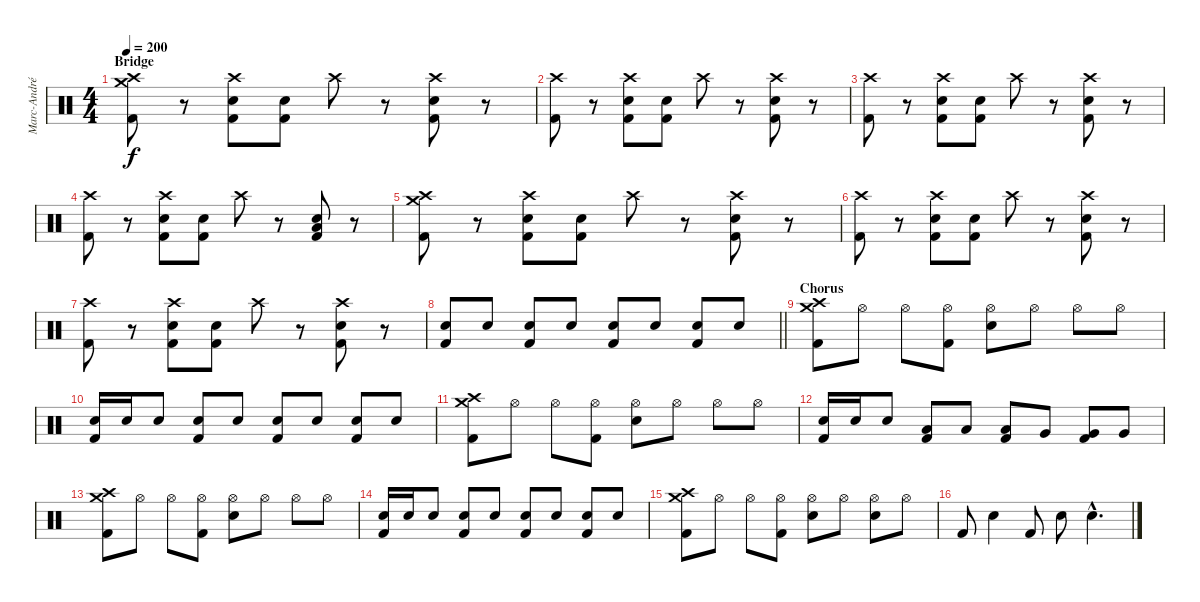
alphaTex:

\track ("Marc-André Barabé" "Marc-André") {instrument percussion}
\staff {score}
\articulation defaults
\ts (4 4)
\section ("" "Bridge")
\tempo 200
\clef neutral
\ks c
("Crash high (hit)" "Crash medium (hit)" "Kick (hit) 2").8{dy f} r.8 ("Crash high (hit)" "Electric Snare (hit)" "Kick (hit) 2"{tr (36 32)}).8 ("Electric Snare (hit)" "Kick (hit) 2").8 "Crash high (hit)".8 r.8 ("Crash high (hit)" "Electric Snare (hit)" "Kick (hit) 2"{tr (4 32)}).8 r.8 |
("Crash high (hit)" "Kick (hit) 2").8 r.8 ("Crash high (hit)" "Electric Snare (hit)" "Kick (hit) 2"{tr (36 32)}).8 ("Electric Snare (hit)" "Kick (hit) 2").8 "Crash high (hit)".8 r.8 ("Crash high (hit)" "Electric Snare (hit)" "Kick (hit) 2"{tr (4 32)}).8 r.8 |
("Crash high (hit)" "Kick (hit) 2").8 r.8 ("Crash high (hit)" "Electric Snare (hit)" "Kick (hit) 2"{tr (36 32)}).8 ("Electric Snare (hit)" "Kick (hit) 2").8 "Crash high (hit)".8 r.8 ("Crash high (hit)" "Electric Snare (hit)" "Kick (hit) 2"{tr (4 32)}).8 r.8 |
("Crash high (hit)" "Kick (hit) 2").8 r.8 ("Crash high (hit)" "Electric Snare (hit)" "Kick (hit) 2"{tr (36 32)}).8 ("Electric Snare (hit)" "Kick (hit) 2").8 "Crash high (hit)".8 r.8 ("Electric Snare (hit)" "Low Floor Tom (hit)" "Kick (hit) 2"{tr (4 32)}).8 r.8 |
("Crash high (hit)" "Crash medium (hit)" "Kick (hit) 2").8 r.8 ("Crash high (hit)" "Electric Snare (hit)" "Kick (hit) 2"{tr (36 32)}).8 ("Electric Snare (hit)" "Kick (hit) 2").8 "Crash high (hit)".8 r.8 ("Crash high (hit)" "Electric Snare (hit)" "Kick (hit) 2"{tr (4 32)}).8 r.8 |
("Crash high (hit)" "Kick (hit) 2").8 r.8 ("Crash high (hit)" "Electric Snare (hit)" "Kick (hit) 2"{tr (36 32)}).8 ("Electric Snare (hit)" "Kick (hit) 2").8 "Crash high (hit)".8 r.8 ("Crash high (hit)" "Electric Snare (hit)" "Kick (hit) 2"{tr (4 32)}).8 r.8 |
("Crash high (hit)" "Kick (hit) 2").8 r.8 ("Crash high (hit)" "Electric Snare (hit)" "Kick (hit) 2"{tr (36 32)}).8 ("Electric Snare (hit)" "Kick (hit) 2").8 "Crash high (hit)".8 r.8 ("Crash high (hit)" "Electric Snare (hit)" "Kick (hit) 2"{tr (4 32)}).8 r.8 |
\barLineRight lightlight
("Electric Snare (hit)" "Kick (hit) 2").8 "Electric Snare (hit)".8 ("Electric Snare (hit)" "Kick (hit) 2").8 "Electric Snare (hit)".8 ("Electric Snare (hit)" "Kick (hit) 2").8 "Electric Snare (hit)".8 ("Electric Snare (hit)" "Kick (hit) 2").8 "Electric Snare (hit)".8 |
\section ("" "Chorus")
("Crash high (hit)" "Crash medium (hit)" "Kick (hit) 2").8 "Hi-Hat (open)".8 "Hi-Hat (open)".8 ("Hi-Hat (open)" "Kick (hit) 2"{tr (36 32)}).8 ("Hi-Hat (open)" "Electric Snare (hit)").8 "Hi-Hat (open)".8 "Hi-Hat (open)".8 "Hi-Hat (open)".8 |
("Electric Snare (hit)" "Kick (hit) 2").16 "Electric Snare (hit)".16 "Electric Snare (hit)".8 ("Electric Snare (hit)" "Kick (hit) 2").8 "Electric Snare (hit)".8 ("Electric Snare (hit)" "Kick (hit) 2").8 "Electric Snare (hit)".8 ("Electric Snare (hit)" "Kick (hit) 2").8 "Electric Snare (hit)".8 |
("Crash high (hit)" "Crash medium (hit)" "Kick (hit) 2").8 "Hi-Hat (open)".8 "Hi-Hat (open)".8 ("Hi-Hat (open)" "Kick (hit) 2"{tr (36 32)}).8 ("Hi-Hat (open)" "Electric Snare (hit)").8 "Hi-Hat (open)".8 "Hi-Hat (open)".8 "Hi-Hat (open)".8 |
("Electric Snare (hit)" "Kick (hit) 2").16 "Electric Snare (hit)".16 "Electric Snare (hit)".8 ("Low Tom (hit)" "Kick (hit) 2").8 "Low Tom (hit)".8 ("Low Tom (hit)" "Kick (hit) 2").8 "Very Low Tom (hit)".8 ("Very Low Tom (hit)" "Kick (hit) 2").8 "Very Low Tom (hit)".8 |
("Crash high (hit)" "Crash medium (hit)" "Kick (hit) 2").8 "Hi-Hat (open)".8 "Hi-Hat (open)".8 ("Hi-Hat (open)" "Kick (hit) 2"{tr (36 32)}).8 ("Hi-Hat (open)" "Electric Snare (hit)").8 "Hi-Hat (open)".8 "Hi-Hat (open)".8 "Hi-Hat (open)".8 |
("Electric Snare (hit)" "Kick (hit) 2").16 "Electric Snare (hit)".16 "Electric Snare (hit)".8 ("Electric Snare (hit)" "Kick (hit) 2").8 "Electric Snare (hit)".8 ("Electric Snare (hit)" "Kick (hit) 2").8 "Electric Snare (hit)".8 ("Electric Snare (hit)" "Kick (hit) 2").8 "Electric Snare (hit)".8 |
("Crash high (hit)" "Crash medium (hit)" "Kick (hit) 2").8 "Hi-Hat (open)".8 "Hi-Hat (open)".8 ("Hi-Hat (open)" "Kick (hit) 2"{tr (36 32)}).8 ("Hi-Hat (open)" "Electric Snare (hit)").8 "Hi-Hat (open)".8 ("Hi-Hat (open)" "Electric Snare (hit)").8 "Hi-Hat (open)".8 |
"Kick (hit) 2"{tr (36 32)}.8 "Electric Snare (hit)".4 "Kick (hit) 2"{tr (36 32)}.8 "Electric Snare (hit)".8 "Electric Snare (hit)"{hac}.4{d}
